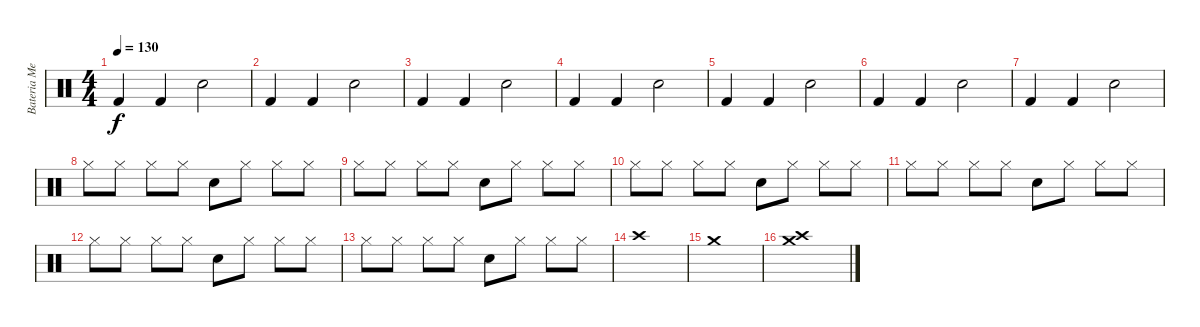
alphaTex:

\track ("Bateria Men" "Bateria Me") {instrument percussion}
\staff {score}
\articulation defaults
\ts (4 4)
\tempo 130
\clef neutral
\ks c "Kick (hit) 2".4{dy f} "Kick (hit) 2".4 "Electric Snare (hit)".2
|
"Kick (hit) 2".4 "Kick (hit) 2".4 "Electric Snare (hit)".2 |
"Kick (hit) 2".4 "Kick (hit) 2".4 "Electric Snare (hit)".2 |
"Kick (hit) 2".4 "Kick (hit) 2".4 "Electric Snare (hit)".2 |
"Kick (hit) 2".4 "Kick (hit) 2".4 "Electric Snare (hit)".2 |
"Kick (hit) 2".4 "Kick (hit) 2".4 "Electric Snare (hit)".2 |
"Kick (hit) 2".4 "Kick (hit) 2".4 "Electric Snare (hit)".2 |
"Hi-Hat (closed)".8 "Hi-Hat (closed)".8 "Hi-Hat (closed)".8 "Hi-Hat (closed)".8 "Electric Snare (hit)".8 "Hi-Hat (closed)".8 "Hi-Hat (closed)".8 "Hi-Hat (closed)".8 |
"Hi-Hat (closed)".8 "Hi-Hat (closed)".8 "Hi-Hat (closed)".8 "Hi-Hat (closed)".8 "Electric Snare (hit)".8 "Hi-Hat (closed)".8 "Hi-Hat (closed)".8 "Hi-Hat (closed)".8 |
"Hi-Hat (closed)".8 "Hi-Hat (closed)".8 "Hi-Hat (closed)".8 "Hi-Hat (closed)".8 "Electric Snare (hit)".8 "Hi-Hat (closed)".8 "Hi-Hat (closed)".8 "Hi-Hat (closed)".8 |
"Hi-Hat (closed)".8 "Hi-Hat (closed)".8 "Hi-Hat (closed)".8 "Hi-Hat (closed)".8 "Electric Snare (hit)".8 "Hi-Hat (closed)".8 "Hi-Hat (closed)".8 "Hi-Hat (closed)".8 |
"Hi-Hat (closed)".8 "Hi-Hat (closed)".8 "Hi-Hat (closed)".8 "Hi-Hat (closed)".8 "Electric Snare (hit)".8 "Hi-Hat (closed)".8 "Hi-Hat (closed)".8 "Hi-Hat (closed)".8 |
"Hi-Hat (closed)".8 "Hi-Hat (closed)".8 "Hi-Hat (closed)".8 "Hi-Hat (closed)".8 "Electric Snare (hit)".8 "Hi-Hat (closed)".8 "Hi-Hat (closed)".8 "Hi-Hat (closed)".8 |
"Crash high (hit)".1 |
"Crash medium (hit)".1 |
("Crash high (hit)" "Crash medium (hit)").1
